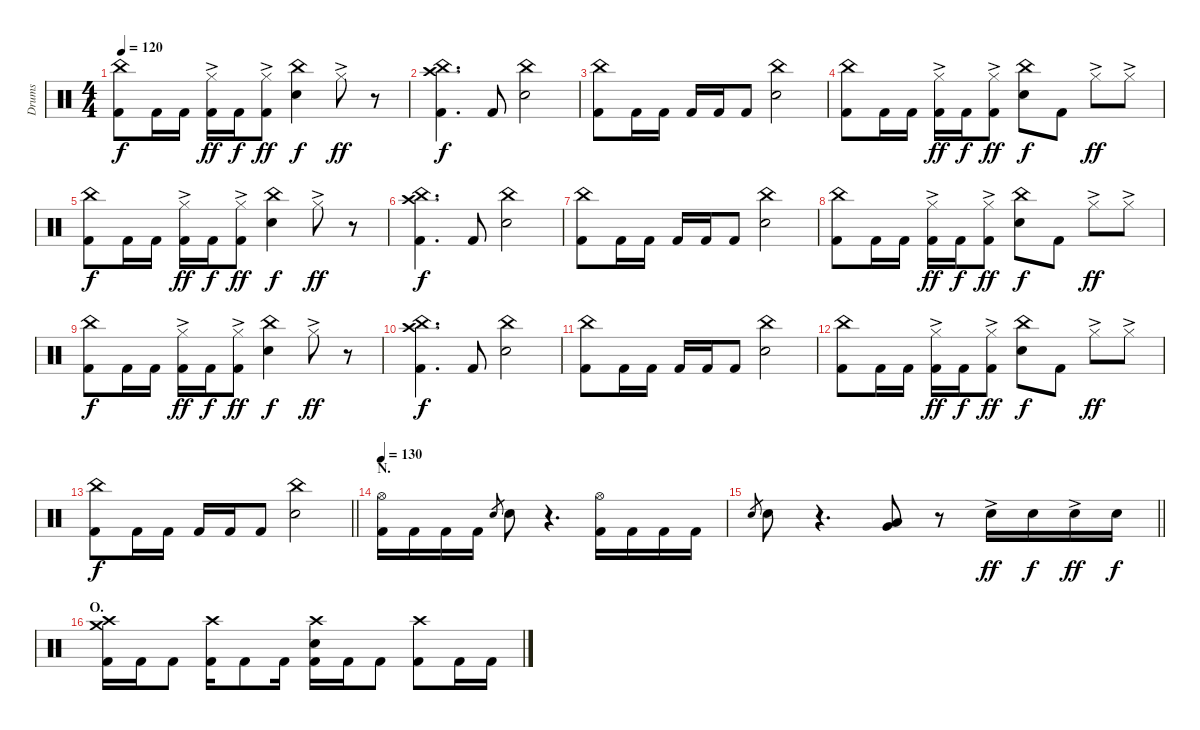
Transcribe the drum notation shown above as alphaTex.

\track ("Drums" "Drums") {instrument percussion}
\staff {score}
\articulation defaults
\ts (4 4)
\tempo 120
\clef neutral
\ks c
("China (hit)" "Kick (hit) 2").8{dy f} "Kick (hit) 2".16 "Kick (hit) 2".16 ("Hi-Hat (closed)"{ac} "Kick (hit) 2").16{dy ff} "Kick (hit) 2".16{dy f} ("Hi-Hat (closed)"{ac} "Kick (hit) 2").8{dy ff} ("China (hit)" "Electric Snare (hit)").4{dy f} "Hi-Hat (closed)"{ac}.8{dy ff} r.8 |
("China (hit)" "Crash high (hit)" "Kick (hit) 2").4{d dy f} "Kick (hit) 2".8 ("China (hit)" "Electric Snare (hit)").2 |
("China (hit)" "Kick (hit) 2").8 "Kick (hit) 2".16 "Kick (hit) 2".16 "Kick (hit) 2".16 "Kick (hit) 2".16 "Kick (hit) 2".8 ("China (hit)" "Electric Snare (hit)").2 |
("China (hit)" "Kick (hit) 2").8 "Kick (hit) 2".16 "Kick (hit) 2".16 ("Hi-Hat (closed)"{ac} "Kick (hit) 2").16{dy ff} "Kick (hit) 2".16{dy f} ("Hi-Hat (closed)"{ac} "Kick (hit) 2").8{dy ff} ("China (hit)" "Electric Snare (hit)").8{dy f} "Kick (hit) 2".8 "Hi-Hat (closed)"{ac}.8{dy ff} "Hi-Hat (closed)"{ac}.8 |
("China (hit)" "Kick (hit) 2").8{dy f} "Kick (hit) 2".16 "Kick (hit) 2".16 ("Hi-Hat (closed)"{ac} "Kick (hit) 2").16{dy ff} "Kick (hit) 2".16{dy f} ("Hi-Hat (closed)"{ac} "Kick (hit) 2").8{dy ff} ("China (hit)" "Electric Snare (hit)").4{dy f} "Hi-Hat (closed)"{ac}.8{dy ff} r.8 |
("China (hit)" "Crash high (hit)" "Kick (hit) 2").4{d dy f} "Kick (hit) 2".8 ("China (hit)" "Electric Snare (hit)").2 |
("China (hit)" "Kick (hit) 2").8 "Kick (hit) 2".16 "Kick (hit) 2".16 "Kick (hit) 2".16 "Kick (hit) 2".16 "Kick (hit) 2".8 ("China (hit)" "Electric Snare (hit)").2 |
("China (hit)" "Kick (hit) 2").8 "Kick (hit) 2".16 "Kick (hit) 2".16 ("Hi-Hat (closed)"{ac} "Kick (hit) 2").16{dy ff} "Kick (hit) 2".16{dy f} ("Hi-Hat (closed)"{ac} "Kick (hit) 2").8{dy ff} ("China (hit)" "Electric Snare (hit)").8{dy f} "Kick (hit) 2".8 "Hi-Hat (closed)"{ac}.8{dy ff} "Hi-Hat (closed)"{ac}.8 |
("China (hit)" "Kick (hit) 2").8{dy f} "Kick (hit) 2".16 "Kick (hit) 2".16 ("Hi-Hat (closed)"{ac} "Kick (hit) 2").16{dy ff} "Kick (hit) 2".16{dy f} ("Hi-Hat (closed)"{ac} "Kick (hit) 2").8{dy ff} ("China (hit)" "Electric Snare (hit)").4{dy f} "Hi-Hat (closed)"{ac}.8{dy ff} r.8 |
("China (hit)" "Crash high (hit)" "Kick (hit) 2").4{d dy f} "Kick (hit) 2".8 ("China (hit)" "Electric Snare (hit)").2 |
("China (hit)" "Kick (hit) 2").8 "Kick (hit) 2".16 "Kick (hit) 2".16 "Kick (hit) 2".16 "Kick (hit) 2".16 "Kick (hit) 2".8 ("China (hit)" "Electric Snare (hit)").2 |
("China (hit)" "Kick (hit) 2").8 "Kick (hit) 2".16 "Kick (hit) 2".16 ("Hi-Hat (closed)"{ac} "Kick (hit) 2").16{dy ff} "Kick (hit) 2".16{dy f} ("Hi-Hat (closed)"{ac} "Kick (hit) 2").8{dy ff} ("China (hit)" "Electric Snare (hit)").8{dy f} "Kick (hit) 2".8 "Hi-Hat (closed)"{ac}.8{dy ff} "Hi-Hat (closed)"{ac}.8 |
\barLineRight lightlight
("China (hit)" "Kick (hit) 2").8{dy f} "Kick (hit) 2".16 "Kick (hit) 2".16 "Kick (hit) 2".16 "Kick (hit) 2".16 "Kick (hit) 2".8 ("China (hit)" "Electric Snare (hit)").2 |
\section ("" "N.")
\tempo 130
("Hi-Hat (open)" "Kick (hit) 2").16 "Kick (hit) 2".16 "Kick (hit) 2".16 "Kick (hit) 2".16 "Electric Snare (hit)".8{gr} "Electric Snare (hit)".8 r.4{d} ("Hi-Hat (open)" "Kick (hit) 2").16 "Kick (hit) 2".16 "Kick (hit) 2".16 "Kick (hit) 2".16 |
\barLineRight lightlight "Electric Snare (hit)".8{gr} "Electric Snare (hit)".8
r.4{d} ("Very Low Tom (hit)" "Low Floor Tom (hit)").8{bu 120} r.8 "Electric Snare (hit)"{ac}.16{dy ff} "Electric Snare (hit)".16{dy f} "Electric Snare (hit)"{ac}.16{dy ff} "Electric Snare (hit)".16{dy f} |
\section ("" "O.")
("Crash medium (hit)" "Crash high (hit)" "Kick (hit) 2").16 "Kick (hit) 2".16 "Kick (hit) 2".8 ("Crash high (hit)" "Kick (hit) 2").16 "Kick (hit) 2".8 "Kick (hit) 2".16 ("Crash high (hit)" "Electric Snare (hit)" "Kick (hit) 2").16 "Kick (hit) 2".16 "Kick (hit) 2".8 ("Crash high (hit)" "Kick (hit) 2").8 "Kick (hit) 2".16 "Kick (hit) 2".16
